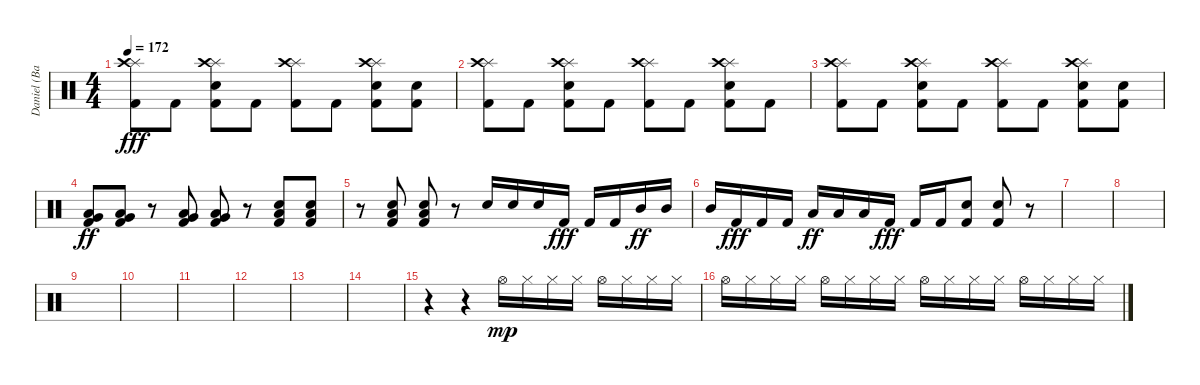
\track ("Daniel (Bateria)" "Daniel (Ba") {instrument percussion}
\staff {score}
\articulation defaults
\ts (4 4)
\tempo 172
\clef neutral
\ks c
("Splash (hit)" "Crash high (hit)" "Kick (hit) 2").8{dy fff} "Kick (hit) 2".8 ("Splash (hit)" "Crash high (hit)" "Electric Snare (hit)" "Kick (hit) 2").8 "Kick (hit) 2".8 ("Splash (hit)" "Crash high (hit)" "Kick (hit) 2").8 "Kick (hit) 2".8 ("Splash (hit)" "Crash high (hit)" "Electric Snare (hit)" "Kick (hit) 2").8 ("Electric Snare (hit)" "Kick (hit) 2").8 |
("Splash (hit)" "Crash high (hit)" "Kick (hit) 2").8 "Kick (hit) 2".8 ("Splash (hit)" "Crash high (hit)" "Electric Snare (hit)" "Kick (hit) 2").8 "Kick (hit) 2".8 ("Splash (hit)" "Crash high (hit)" "Kick (hit) 2").8 "Kick (hit) 2".8 ("Splash (hit)" "Crash high (hit)" "Electric Snare (hit)" "Kick (hit) 2").8 "Kick (hit) 2".8 |
("Splash (hit)" "Crash high (hit)" "Kick (hit) 2").8 "Kick (hit) 2".8 ("Splash (hit)" "Crash high (hit)" "Electric Snare (hit)" "Kick (hit) 2").8 "Kick (hit) 2".8 ("Splash (hit)" "Crash high (hit)" "Kick (hit) 2").8 "Kick (hit) 2".8 ("Splash (hit)" "Crash high (hit)" "Electric Snare (hit)" "Kick (hit) 2").8 ("Electric Snare (hit)" "Kick (hit) 2").8 |
("Low Floor Tom (hit)" "Very Low Tom (hit)" "Kick (hit) 2").8{dy ff} ("Low Floor Tom (hit)" "Very Low Tom (hit)" "Kick (hit) 2").8 r.8 ("Low Floor Tom (hit)" "Very Low Tom (hit)" "Kick (hit) 2").8 ("Low Floor Tom (hit)" "Very Low Tom (hit)" "Kick (hit) 2").8 r.8 ("Low Tom (hit)" "Electric Snare (hit)" "Kick (hit) 2").8 ("Low Tom (hit)" "Electric Snare (hit)" "Kick (hit) 2").8 |
r.8 ("Low Tom (hit)" "Electric Snare (hit)" "Kick (hit) 2").8 ("Low Tom (hit)" "Electric Snare (hit)" "Kick (hit) 2").8 r.8 "Electric Snare (hit)".16 "Electric Snare (hit)".16 "Electric Snare (hit)".16 "Kick (hit) 2".16{dy fff} "Kick (hit) 2".16 "Kick (hit) 2".16 "Mid Tom (hit)".16{dy ff} "Mid Tom (hit)".16 |
"Mid Tom (hit)".16 "Kick (hit) 2".16{dy fff} "Kick (hit) 2".16 "Kick (hit) 2".16 "Low Tom (hit)".16{dy ff} "Low Tom (hit)".16 "Low Tom (hit)".16 "Kick (hit) 2".16{dy fff} "Kick (hit) 2".16 "Kick (hit) 2".16 ("Electric Snare (hit)" "Kick (hit) 2").8 ("Electric Snare (hit)" "Kick (hit) 2").8 r.8 |
|
|
|
|
|
|
|
|
r.4 r.4 "Hi-Hat (open)".16{dy mp} "Hi-Hat (closed)".16 "Hi-Hat (closed)".16 "Hi-Hat (closed)".16 "Hi-Hat (open)".16 "Hi-Hat (closed)".16 "Hi-Hat (closed)".16 "Hi-Hat (closed)".16 |
"Hi-Hat (open)".16 "Hi-Hat (closed)".16 "Hi-Hat (closed)".16 "Hi-Hat (closed)".16 "Hi-Hat (open)".16 "Hi-Hat (closed)".16 "Hi-Hat (closed)".16 "Hi-Hat (closed)".16 "Hi-Hat (open)".16 "Hi-Hat (closed)".16 "Hi-Hat (closed)".16 "Hi-Hat (closed)".16 "Hi-Hat (open)".16 "Hi-Hat (closed)".16 "Hi-Hat (closed)".16 "Hi-Hat (closed)".16
